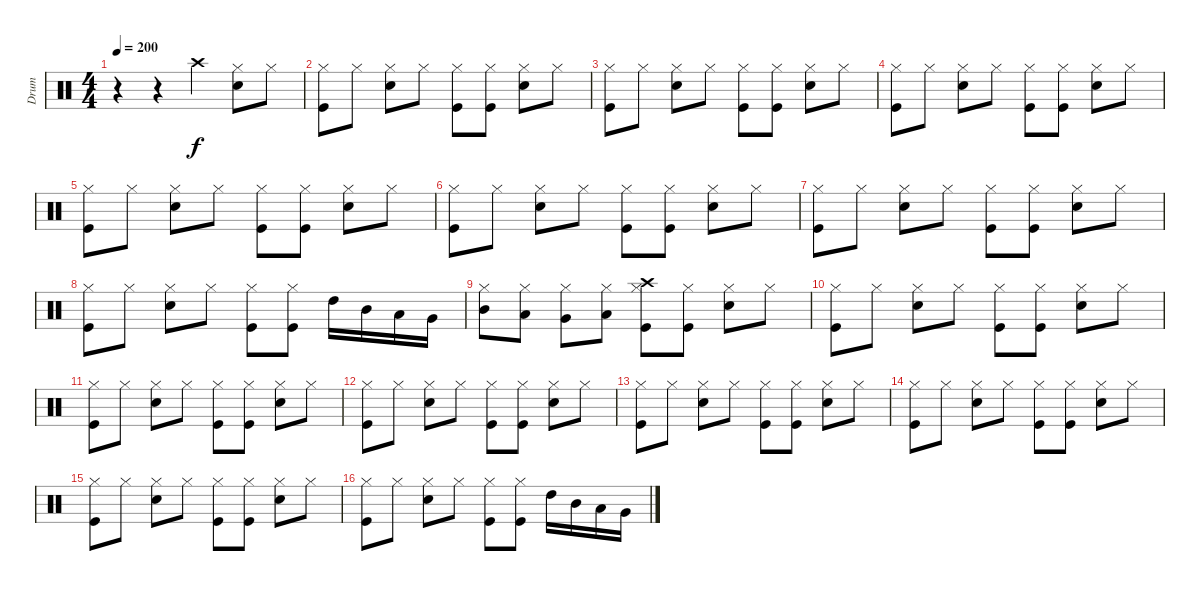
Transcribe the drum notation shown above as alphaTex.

\track ("Drum" "Drum") {instrument percussion}
\staff {score}
\articulation defaults
\ts (4 4)
\tempo 200
\clef neutral
\ks c
r.4{dy f} r.4 "Crash high (hit)".4 ("Hi-Hat (closed)" "Electric Snare (hit)").8 "Hi-Hat (closed)".8 |
("Hi-Hat (closed)" "Kick (hit)").8 "Hi-Hat (closed)".8 ("Hi-Hat (closed)" "Electric Snare (hit)").8 "Hi-Hat (closed)".8 ("Hi-Hat (closed)" "Kick (hit)").8 ("Hi-Hat (closed)" "Kick (hit)").8 ("Hi-Hat (closed)" "Electric Snare (hit)").8 "Hi-Hat (closed)".8 |
("Hi-Hat (closed)" "Kick (hit)").8 "Hi-Hat (closed)".8 ("Hi-Hat (closed)" "Electric Snare (hit)").8 "Hi-Hat (closed)".8 ("Hi-Hat (closed)" "Kick (hit)").8 ("Hi-Hat (closed)" "Kick (hit)").8 ("Hi-Hat (closed)" "Electric Snare (hit)").8 "Hi-Hat (closed)".8 |
("Hi-Hat (closed)" "Kick (hit)").8 "Hi-Hat (closed)".8 ("Hi-Hat (closed)" "Electric Snare (hit)").8 "Hi-Hat (closed)".8 ("Hi-Hat (closed)" "Kick (hit)").8 ("Hi-Hat (closed)" "Kick (hit)").8 ("Hi-Hat (closed)" "Electric Snare (hit)").8 "Hi-Hat (closed)".8 |
("Hi-Hat (closed)" "Kick (hit)").8 "Hi-Hat (closed)".8 ("Hi-Hat (closed)" "Electric Snare (hit)").8 "Hi-Hat (closed)".8 ("Hi-Hat (closed)" "Kick (hit)").8 ("Hi-Hat (closed)" "Kick (hit)").8 ("Hi-Hat (closed)" "Electric Snare (hit)").8 "Hi-Hat (closed)".8 |
("Hi-Hat (closed)" "Kick (hit)").8 "Hi-Hat (closed)".8 ("Hi-Hat (closed)" "Electric Snare (hit)").8 "Hi-Hat (closed)".8 ("Hi-Hat (closed)" "Kick (hit)").8 ("Hi-Hat (closed)" "Kick (hit)").8 ("Hi-Hat (closed)" "Electric Snare (hit)").8 "Hi-Hat (closed)".8 |
("Hi-Hat (closed)" "Kick (hit)").8 "Hi-Hat (closed)".8 ("Hi-Hat (closed)" "Electric Snare (hit)").8 "Hi-Hat (closed)".8 ("Hi-Hat (closed)" "Kick (hit)").8 ("Hi-Hat (closed)" "Kick (hit)").8 ("Hi-Hat (closed)" "Electric Snare (hit)").8 "Hi-Hat (closed)".8 |
("Hi-Hat (closed)" "Kick (hit)").8 "Hi-Hat (closed)".8 ("Hi-Hat (closed)" "Electric Snare (hit)").8 "Hi-Hat (closed)".8 ("Hi-Hat (closed)" "Kick (hit)").8 ("Hi-Hat (closed)" "Kick (hit)").8 "High Tom (hit)".16 "Mid Tom (hit)".16 "Low Tom (hit)".16 "Very Low Tom (hit)".16 |
("Hi-Hat (closed)" "Mid Tom (hit)").8 ("Hi-Hat (closed)" "Low Tom (hit)").8 ("Hi-Hat (closed)" "Very Low Tom (hit)").8 ("Hi-Hat (closed)" "Low Floor Tom (hit)").8 ("Crash high (hit)" "Hi-Hat (closed)" "Kick (hit)").8 ("Hi-Hat (closed)" "Kick (hit)").8 ("Hi-Hat (closed)" "Electric Snare (hit)").8 "Hi-Hat (closed)".8 |
("Hi-Hat (closed)" "Kick (hit)").8 "Hi-Hat (closed)".8 ("Hi-Hat (closed)" "Electric Snare (hit)").8 "Hi-Hat (closed)".8 ("Hi-Hat (closed)" "Kick (hit)").8 ("Hi-Hat (closed)" "Kick (hit)").8 ("Hi-Hat (closed)" "Electric Snare (hit)").8 "Hi-Hat (closed)".8 |
("Hi-Hat (closed)" "Kick (hit)").8 "Hi-Hat (closed)".8 ("Hi-Hat (closed)" "Electric Snare (hit)").8 "Hi-Hat (closed)".8 ("Hi-Hat (closed)" "Kick (hit)").8 ("Hi-Hat (closed)" "Kick (hit)").8 ("Hi-Hat (closed)" "Electric Snare (hit)").8 "Hi-Hat (closed)".8 |
("Hi-Hat (closed)" "Kick (hit)").8 "Hi-Hat (closed)".8 ("Hi-Hat (closed)" "Electric Snare (hit)").8 "Hi-Hat (closed)".8 ("Hi-Hat (closed)" "Kick (hit)").8 ("Hi-Hat (closed)" "Kick (hit)").8 ("Hi-Hat (closed)" "Electric Snare (hit)").8 "Hi-Hat (closed)".8 |
("Hi-Hat (closed)" "Kick (hit)").8 "Hi-Hat (closed)".8 ("Hi-Hat (closed)" "Electric Snare (hit)").8 "Hi-Hat (closed)".8 ("Hi-Hat (closed)" "Kick (hit)").8 ("Hi-Hat (closed)" "Kick (hit)").8 ("Hi-Hat (closed)" "Electric Snare (hit)").8 "Hi-Hat (closed)".8 |
("Hi-Hat (closed)" "Kick (hit)").8 "Hi-Hat (closed)".8 ("Hi-Hat (closed)" "Electric Snare (hit)").8 "Hi-Hat (closed)".8 ("Hi-Hat (closed)" "Kick (hit)").8 ("Hi-Hat (closed)" "Kick (hit)").8 ("Hi-Hat (closed)" "Electric Snare (hit)").8 "Hi-Hat (closed)".8 |
("Hi-Hat (closed)" "Kick (hit)").8 "Hi-Hat (closed)".8 ("Hi-Hat (closed)" "Electric Snare (hit)").8 "Hi-Hat (closed)".8 ("Hi-Hat (closed)" "Kick (hit)").8 ("Hi-Hat (closed)" "Kick (hit)").8 ("Hi-Hat (closed)" "Electric Snare (hit)").8 "Hi-Hat (closed)".8 |
("Hi-Hat (closed)" "Kick (hit)").8 "Hi-Hat (closed)".8 ("Hi-Hat (closed)" "Electric Snare (hit)").8 "Hi-Hat (closed)".8 ("Hi-Hat (closed)" "Kick (hit)").8 ("Hi-Hat (closed)" "Kick (hit)").8 "High Tom (hit)".16 "Mid Tom (hit)".16 "Low Tom (hit)".16 "Very Low Tom (hit)".16
